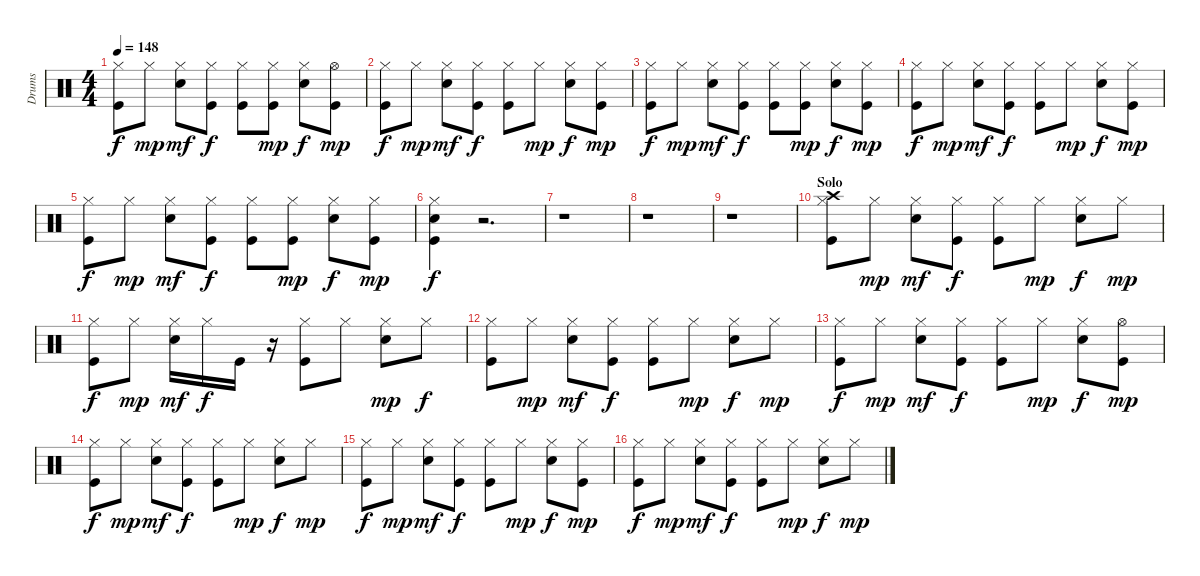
\track ("Drums   " "Drums   ") {instrument percussion}
\staff {score}
\articulation defaults
\ts (4 4)
\tempo 148
\clef neutral
\ks c
("Hi-Hat (closed)" "Kick (hit)").8{dy f} "Hi-Hat (closed)".8{dy mp} ("Hi-Hat (closed)" "Snare (hit) 2").8{dy mf} ("Hi-Hat (closed)" "Kick (hit)").8{dy f} ("Hi-Hat (closed)" "Kick (hit)").8 ("Hi-Hat (closed)" "Kick (hit)").8{dy mp} ("Hi-Hat (closed)" "Snare (hit) 2").8{dy f} ("Hi-Hat (open)" "Kick (hit)").8{dy mp} |
("Hi-Hat (closed)" "Kick (hit)").8{dy f} "Hi-Hat (closed)".8{dy mp} ("Hi-Hat (closed)" "Snare (hit) 2").8{dy mf} ("Hi-Hat (closed)" "Kick (hit)").8{dy f} ("Hi-Hat (closed)" "Kick (hit)").8 "Hi-Hat (closed)".8{dy mp} ("Hi-Hat (closed)" "Snare (hit) 2").8{dy f} ("Hi-Hat (closed)" "Kick (hit)").8{dy mp} |
("Hi-Hat (closed)" "Kick (hit)").8{dy f} "Hi-Hat (closed)".8{dy mp} ("Hi-Hat (closed)" "Snare (hit) 2").8{dy mf} ("Hi-Hat (closed)" "Kick (hit)").8{dy f} ("Hi-Hat (closed)" "Kick (hit)").8 ("Hi-Hat (closed)" "Kick (hit)").8{dy mp} ("Hi-Hat (closed)" "Snare (hit) 2").8{dy f} ("Hi-Hat (closed)" "Kick (hit)").8{dy mp} |
("Hi-Hat (closed)" "Kick (hit)").8{dy f} "Hi-Hat (closed)".8{dy mp} ("Hi-Hat (closed)" "Snare (hit) 2").8{dy mf} ("Hi-Hat (closed)" "Kick (hit)").8{dy f} ("Hi-Hat (closed)" "Kick (hit)").8 "Hi-Hat (closed)".8{dy mp} ("Hi-Hat (closed)" "Snare (hit) 2").8{dy f} ("Hi-Hat (closed)" "Kick (hit)").8{dy mp} |
("Hi-Hat (closed)" "Kick (hit)").8{dy f} "Hi-Hat (closed)".8{dy mp} ("Hi-Hat (closed)" "Snare (hit) 2").8{dy mf} ("Hi-Hat (closed)" "Kick (hit)").8{dy f} ("Hi-Hat (closed)" "Kick (hit)").8 ("Hi-Hat (closed)" "Kick (hit)").8{dy mp} ("Hi-Hat (closed)" "Snare (hit) 2").8{dy f} ("Hi-Hat (closed)" "Kick (hit)").8{dy mp} |
("Hi-Hat (closed)" "Snare (hit) 2" "Kick (hit)").4{dy f} r.2{d} |
r.1 |
r.1 |
r.1 |
\section ("" "Solo")
("Hi-Hat (closed)" "Crash high (hit)" "Kick (hit)").8 "Hi-Hat (closed)".8{dy mp} ("Hi-Hat (closed)" "Snare (hit) 2").8{dy mf} ("Hi-Hat (closed)" "Kick (hit)").8{dy f} ("Hi-Hat (closed)" "Kick (hit)").8 "Hi-Hat (closed)".8{dy mp} ("Hi-Hat (closed)" "Snare (hit) 2").8{dy f} "Hi-Hat (closed)".8{dy mp} |
("Hi-Hat (closed)" "Kick (hit)").8{dy f} "Hi-Hat (closed)".8{dy mp} ("Hi-Hat (closed)" "Snare (hit) 2").16{dy mf} "Hi-Hat (closed)".16{dy f} "Kick (hit)".16 r.16 ("Hi-Hat (closed)" "Kick (hit)").8 "Hi-Hat (closed)".8 ("Hi-Hat (closed)" "Snare (hit) 2").8{dy mp} "Hi-Hat (closed)".8{dy f} |
("Hi-Hat (closed)" "Kick (hit)").8 "Hi-Hat (closed)".8{dy mp} ("Hi-Hat (closed)" "Snare (hit) 2").8{dy mf} ("Hi-Hat (closed)" "Kick (hit)").8{dy f} ("Hi-Hat (closed)" "Kick (hit)").8 "Hi-Hat (closed)".8{dy mp} ("Hi-Hat (closed)" "Snare (hit) 2").8{dy f} "Hi-Hat (closed)".8{dy mp} |
("Hi-Hat (closed)" "Kick (hit)").8{dy f} "Hi-Hat (closed)".8{dy mp} ("Hi-Hat (closed)" "Snare (hit) 2").8{dy mf} ("Hi-Hat (closed)" "Kick (hit)").8{dy f} ("Hi-Hat (closed)" "Kick (hit)").8 "Hi-Hat (closed)".8{dy mp} ("Hi-Hat (closed)" "Snare (hit) 2").8{dy f} ("Hi-Hat (open)" "Kick (hit)").8{dy mp} |
("Hi-Hat (closed)" "Kick (hit)").8{dy f} "Hi-Hat (closed)".8{dy mp} ("Hi-Hat (closed)" "Snare (hit) 2").8{dy mf} ("Hi-Hat (closed)" "Kick (hit)").8{dy f} ("Hi-Hat (closed)" "Kick (hit)").8 "Hi-Hat (closed)".8{dy mp} ("Hi-Hat (closed)" "Snare (hit) 2").8{dy f} "Hi-Hat (closed)".8{dy mp} |
("Hi-Hat (closed)" "Kick (hit)").8{dy f} "Hi-Hat (closed)".8{dy mp} ("Hi-Hat (closed)" "Snare (hit) 2").8{dy mf} ("Hi-Hat (closed)" "Kick (hit)").8{dy f} ("Hi-Hat (closed)" "Kick (hit)").8 "Hi-Hat (closed)".8{dy mp} ("Hi-Hat (closed)" "Snare (hit) 2").8{dy f} ("Hi-Hat (closed)" "Kick (hit)").8{dy mp} |
("Hi-Hat (closed)" "Kick (hit)").8{dy f} "Hi-Hat (closed)".8{dy mp} ("Hi-Hat (closed)" "Snare (hit) 2").8{dy mf} ("Hi-Hat (closed)" "Kick (hit)").8{dy f} ("Hi-Hat (closed)" "Kick (hit)").8 "Hi-Hat (closed)".8{dy mp} ("Hi-Hat (closed)" "Snare (hit) 2").8{dy f} "Hi-Hat (closed)".8{dy mp}
